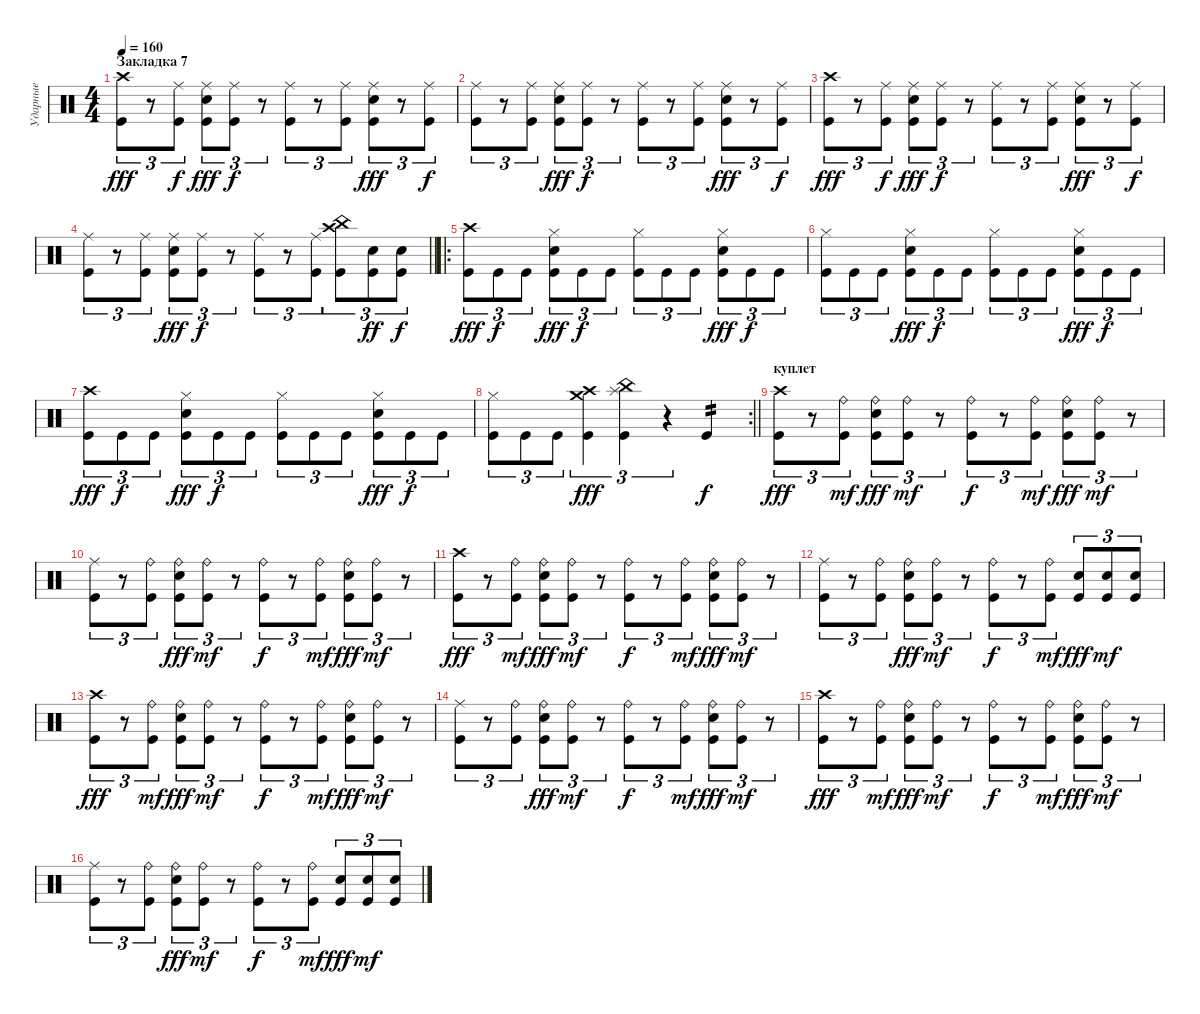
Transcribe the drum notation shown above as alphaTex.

\track ("Ударные" "Ударные") {instrument percussion}
\staff {score}
\articulation defaults
\ts (4 4)
\section ("" "Закладка 7")
\tempo 160
\clef neutral
\ks c
("Kick (hit)" "Crash high (hit)").8{tu (3 2) dy fff} r.8{tu (3 2)} ("Kick (hit)" "Ride (middle)").8{tu (3 2) dy f} ("Kick (hit)" "Snare (hit) 2" "Ride (middle)").8{tu (3 2) dy fff} ("Kick (hit)" "Ride (middle)").8{tu (3 2) dy f} r.8{tu (3 2)} ("Kick (hit)" "Ride (middle)").8{tu (3 2)} r.8{tu (3 2)} ("Kick (hit)" "Ride (middle)").8{tu (3 2)} ("Kick (hit)" "Snare (hit) 2" "Ride (middle)").8{tu (3 2) dy fff} r.8{tu (3 2)} ("Kick (hit)" "Ride (middle)").8{tu (3 2) dy f} |
("Kick (hit)" "Ride (middle)").8{tu (3 2)} r.8{tu (3 2)} ("Kick (hit)" "Ride (middle)").8{tu (3 2)} ("Kick (hit)" "Snare (hit) 2" "Ride (middle)").8{tu (3 2) dy fff} ("Kick (hit)" "Ride (middle)").8{tu (3 2) dy f} r.8{tu (3 2)} ("Kick (hit)" "Ride (middle)").8{tu (3 2)} r.8{tu (3 2)} ("Kick (hit)" "Ride (middle)").8{tu (3 2)} ("Kick (hit)" "Snare (hit) 2" "Ride (middle)").8{tu (3 2) dy fff} r.8{tu (3 2)} ("Kick (hit)" "Ride (middle)").8{tu (3 2) dy f} |
("Kick (hit)" "Crash high (hit)").8{tu (3 2) dy fff} r.8{tu (3 2)} ("Kick (hit)" "Ride (middle)").8{tu (3 2) dy f} ("Kick (hit)" "Snare (hit) 2" "Ride (middle)").8{tu (3 2) dy fff} ("Kick (hit)" "Ride (middle)").8{tu (3 2) dy f} r.8{tu (3 2)} ("Kick (hit)" "Ride (middle)").8{tu (3 2)} r.8{tu (3 2)} ("Kick (hit)" "Ride (middle)").8{tu (3 2)} ("Kick (hit)" "Snare (hit) 2" "Ride (middle)").8{tu (3 2) dy fff} r.8{tu (3 2)} ("Kick (hit)" "Ride (middle)").8{tu (3 2) dy f} |
\barLineRight lightlight
("Kick (hit)" "Ride (middle)").8{tu (3 2)} r.8{tu (3 2)} ("Kick (hit)" "Ride (middle)").8{tu (3 2)} ("Kick (hit)" "Snare (hit) 2" "Ride (middle)").8{tu (3 2) dy fff} ("Kick (hit)" "Ride (middle)").8{tu (3 2) dy f} r.8{tu (3 2)} ("Kick (hit)" "Ride (middle)").8{tu (3 2)} r.8{tu (3 2)} ("Kick (hit)" "Ride (middle)").8{tu (3 2)} ("Kick (hit)" "Crash high (hit)" "China (hit)").8{tu (3 2)} ("Kick (hit)" "Snare (hit) 2").8{tu (3 2) dy ff} ("Snare (hit) 2" "Kick (hit)").8{tu (3 2) dy f} |
\ro
("Kick (hit)" "Crash high (hit)").8{tu (3 2) dy fff} "Kick (hit)".8{tu (3 2) dy f} "Kick (hit)".8{tu (3 2)} ("Kick (hit)" "Snare (hit) 2" "Hi-Hat (closed)").8{tu (3 2) dy fff} "Kick (hit)".8{tu (3 2) dy f} "Kick (hit)".8{tu (3 2)} ("Kick (hit)" "Hi-Hat (closed)").8{tu (3 2)} "Kick (hit)".8{tu (3 2)} "Kick (hit)".8{tu (3 2)} ("Kick (hit)" "Snare (hit) 2" "Hi-Hat (closed)").8{tu (3 2) dy fff} "Kick (hit)".8{tu (3 2) dy f} "Kick (hit)".8{tu (3 2)} |
("Kick (hit)" "Hi-Hat (closed)").8{tu (3 2)} "Kick (hit)".8{tu (3 2)} "Kick (hit)".8{tu (3 2)} ("Kick (hit)" "Snare (hit) 2" "Hi-Hat (closed)").8{tu (3 2) dy fff} "Kick (hit)".8{tu (3 2) dy f} "Kick (hit)".8{tu (3 2)} ("Kick (hit)" "Hi-Hat (closed)").8{tu (3 2)} "Kick (hit)".8{tu (3 2)} "Kick (hit)".8{tu (3 2)} ("Kick (hit)" "Snare (hit) 2" "Hi-Hat (closed)").8{tu (3 2) dy fff} "Kick (hit)".8{tu (3 2) dy f} "Kick (hit)".8{tu (3 2)} |
("Kick (hit)" "Crash high (hit)").8{tu (3 2) dy fff} "Kick (hit)".8{tu (3 2) dy f} "Kick (hit)".8{tu (3 2)} ("Kick (hit)" "Snare (hit) 2" "Hi-Hat (closed)").8{tu (3 2) dy fff} "Kick (hit)".8{tu (3 2) dy f} "Kick (hit)".8{tu (3 2)} ("Kick (hit)" "Hi-Hat (closed)").8{tu (3 2)} "Kick (hit)".8{tu (3 2)} "Kick (hit)".8{tu (3 2)} ("Kick (hit)" "Snare (hit) 2" "Hi-Hat (closed)").8{tu (3 2) dy fff} "Kick (hit)".8{tu (3 2) dy f} "Kick (hit)".8{tu (3 2)} |
\rc 2
\barLineRight lightlight
("Kick (hit)" "Hi-Hat (closed)").8{tu (3 2)} "Kick (hit)".8{tu (3 2)} "Kick (hit)".8{tu (3 2)} ("Kick (hit)" "Crash high (hit)" "Crash medium (hit)").4{tu (3 2) dy fff} ("Kick (hit)" "Splash (hit)" "China (hit)").4{tu (3 2)} r.4{tu (3 2)} "Kick (hit)".4{tp 2 dy f} |
\section ("" "куплет")
("Kick (hit)" "Crash high (hit)").8{tu (3 2) dy fff} r.8{tu (3 2)} ("Kick (hit)" "Ride (bell)").8{tu (3 2) dy mf} ("Kick (hit)" "Snare (hit) 2" "Ride (bell)").8{tu (3 2) dy fff} ("Kick (hit)" "Ride (bell)").8{tu (3 2) dy mf} r.8{tu (3 2)} ("Kick (hit)" "Ride (bell)").8{tu (3 2) dy f} r.8{tu (3 2)} ("Kick (hit)" "Ride (bell)").8{tu (3 2) dy mf} ("Kick (hit)" "Snare (hit) 2" "Ride (bell)").8{tu (3 2) dy fff} ("Kick (hit)" "Ride (bell)").8{tu (3 2) dy mf} r.8{tu (3 2)} |
("Kick (hit)" "Ride (middle)").8{tu (3 2)} r.8{tu (3 2)} ("Kick (hit)" "Ride (bell)").8{tu (3 2)} ("Kick (hit)" "Snare (hit) 2" "Ride (bell)").8{tu (3 2) dy fff} ("Kick (hit)" "Ride (bell)").8{tu (3 2) dy mf} r.8{tu (3 2)} ("Kick (hit)" "Ride (bell)").8{tu (3 2) dy f} r.8{tu (3 2)} ("Kick (hit)" "Ride (bell)").8{tu (3 2) dy mf} ("Kick (hit)" "Snare (hit) 2" "Ride (bell)").8{tu (3 2) dy fff} ("Kick (hit)" "Ride (bell)").8{tu (3 2) dy mf} r.8{tu (3 2)} |
("Kick (hit)" "Crash high (hit)").8{tu (3 2) dy fff} r.8{tu (3 2)} ("Kick (hit)" "Ride (bell)").8{tu (3 2) dy mf} ("Kick (hit)" "Snare (hit) 2" "Ride (bell)").8{tu (3 2) dy fff} ("Kick (hit)" "Ride (bell)").8{tu (3 2) dy mf} r.8{tu (3 2)} ("Kick (hit)" "Ride (bell)").8{tu (3 2) dy f} r.8{tu (3 2)} ("Kick (hit)" "Ride (bell)").8{tu (3 2) dy mf} ("Kick (hit)" "Snare (hit) 2" "Ride (bell)").8{tu (3 2) dy fff} ("Kick (hit)" "Ride (bell)").8{tu (3 2) dy mf} r.8{tu (3 2)} |
("Kick (hit)" "Ride (middle)").8{tu (3 2)} r.8{tu (3 2)} ("Kick (hit)" "Ride (bell)").8{tu (3 2)} ("Kick (hit)" "Snare (hit) 2" "Ride (bell)").8{tu (3 2) dy fff} ("Kick (hit)" "Ride (bell)").8{tu (3 2) dy mf} r.8{tu (3 2)} ("Kick (hit)" "Ride (bell)").8{tu (3 2) dy f} r.8{tu (3 2)} ("Kick (hit)" "Ride (bell)").8{tu (3 2) dy mf} ("Kick (hit)" "Snare (hit) 2").8{tu (3 2) dy fff} ("Kick (hit)" "Snare (hit) 2").8{tu (3 2) dy mf} ("Snare (hit) 2" "Kick (hit)").8{tu (3 2)} |
("Kick (hit)" "Crash high (hit)").8{tu (3 2) dy fff} r.8{tu (3 2)} ("Kick (hit)" "Ride (bell)").8{tu (3 2) dy mf} ("Kick (hit)" "Snare (hit) 2" "Ride (bell)").8{tu (3 2) dy fff} ("Kick (hit)" "Ride (bell)").8{tu (3 2) dy mf} r.8{tu (3 2)} ("Kick (hit)" "Ride (bell)").8{tu (3 2) dy f} r.8{tu (3 2)} ("Kick (hit)" "Ride (bell)").8{tu (3 2) dy mf} ("Kick (hit)" "Snare (hit) 2" "Ride (bell)").8{tu (3 2) dy fff} ("Kick (hit)" "Ride (bell)").8{tu (3 2) dy mf} r.8{tu (3 2)} |
("Kick (hit)" "Ride (middle)").8{tu (3 2)} r.8{tu (3 2)} ("Kick (hit)" "Ride (bell)").8{tu (3 2)} ("Kick (hit)" "Snare (hit) 2" "Ride (bell)").8{tu (3 2) dy fff} ("Kick (hit)" "Ride (bell)").8{tu (3 2) dy mf} r.8{tu (3 2)} ("Kick (hit)" "Ride (bell)").8{tu (3 2) dy f} r.8{tu (3 2)} ("Kick (hit)" "Ride (bell)").8{tu (3 2) dy mf} ("Kick (hit)" "Snare (hit) 2" "Ride (bell)").8{tu (3 2) dy fff} ("Kick (hit)" "Ride (bell)").8{tu (3 2) dy mf} r.8{tu (3 2)} |
("Kick (hit)" "Crash high (hit)").8{tu (3 2) dy fff} r.8{tu (3 2)} ("Kick (hit)" "Ride (bell)").8{tu (3 2) dy mf} ("Kick (hit)" "Snare (hit) 2" "Ride (bell)").8{tu (3 2) dy fff} ("Kick (hit)" "Ride (bell)").8{tu (3 2) dy mf} r.8{tu (3 2)} ("Kick (hit)" "Ride (bell)").8{tu (3 2) dy f} r.8{tu (3 2)} ("Kick (hit)" "Ride (bell)").8{tu (3 2) dy mf} ("Kick (hit)" "Snare (hit) 2" "Ride (bell)").8{tu (3 2) dy fff} ("Kick (hit)" "Ride (bell)").8{tu (3 2) dy mf} r.8{tu (3 2)} |
("Kick (hit)" "Ride (middle)").8{tu (3 2)} r.8{tu (3 2)} ("Kick (hit)" "Ride (bell)").8{tu (3 2)} ("Kick (hit)" "Snare (hit) 2" "Ride (bell)").8{tu (3 2) dy fff} ("Kick (hit)" "Ride (bell)").8{tu (3 2) dy mf} r.8{tu (3 2)} ("Kick (hit)" "Ride (bell)").8{tu (3 2) dy f} r.8{tu (3 2)} ("Kick (hit)" "Ride (bell)").8{tu (3 2) dy mf} ("Kick (hit)" "Snare (hit) 2").8{tu (3 2) dy fff} ("Kick (hit)" "Snare (hit) 2").8{tu (3 2) dy mf} ("Snare (hit) 2" "Kick (hit)").8{tu (3 2)}
